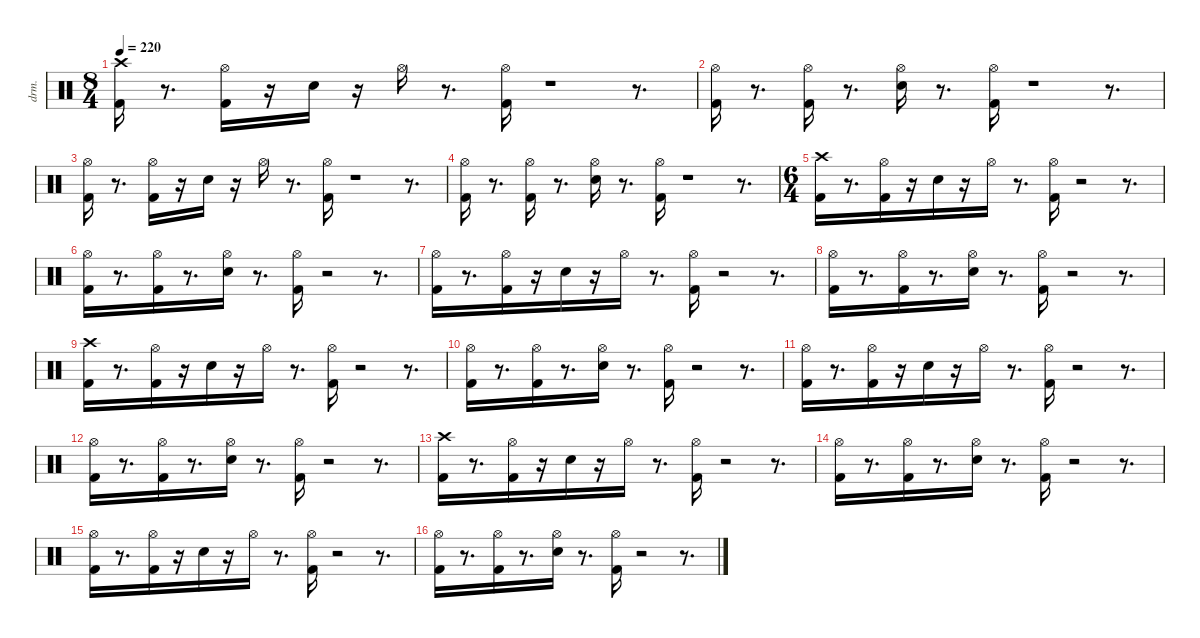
\defaultSystemsLayout 4
\hideDynamics
\bracketExtendMode nobrackets
\otherSystemsTrackNameOrientation horizontal
\track ("EZdrummer 3" "drm.") {instrument percussion}
\staff {score}
\articulation defaults
\ts (8 4)
\tempo 220
\clef neutral
\ks c
("Kick (hit) 2" "Crash high (hit)"{acc #}).16{dy fff beam Down} r.8{d beam Down} ("Kick (hit) 2" "Hi-Hat (open)"{acc #}).16{dy ff beam Down} r.16{beam Down} "Snare (hit) 2".16{beam Down} r.16{beam Down} "Hi-Hat (open)"{acc #}.16{beam Down} r.8{d beam Down} ("Kick (hit) 2" "Hi-Hat (open)"{acc #}).16{beam Down} r.1{beam Down} r.8{d beam Down} |
("Kick (hit) 2" "Hi-Hat (open)"{acc #}).16{beam Down} r.8{d beam Down} ("Kick (hit) 2" "Hi-Hat (open)"{acc #}).16{beam Down} r.8{d beam Down} ("Snare (hit) 2" "Hi-Hat (open)"{acc #}).16{beam Down} r.8{d beam Down} ("Kick (hit) 2" "Hi-Hat (open)"{acc #}).16{dy mf beam Down} r.1{beam Down} r.8{d beam Down} |
("Kick (hit) 2" "Hi-Hat (open)"{acc #}).16{dy fff beam Down} r.8{d beam Down} ("Kick (hit) 2" "Hi-Hat (open)"{acc #}).16{dy ff beam Down} r.16{beam Down} "Snare (hit) 2".16{beam Down} r.16{beam Down} "Hi-Hat (open)"{acc #}.16{beam Down} r.8{d beam Down} ("Kick (hit) 2" "Hi-Hat (open)"{acc #}).16{beam Down} r.1{beam Down} r.8{d beam Down} |
("Kick (hit) 2" "Hi-Hat (open)"{acc #}).16{beam Down} r.8{d beam Down} ("Kick (hit) 2" "Hi-Hat (open)"{acc #}).16{beam Down} r.8{d beam Down} ("Snare (hit) 2" "Hi-Hat (open)"{acc #}).16{beam Down} r.8{d beam Down} ("Kick (hit) 2" "Hi-Hat (open)"{acc #}).16{dy mf beam Down} r.1{beam Down} r.8{d beam Down} |
\ts (6 4)
\beaming (8 6 6)
("Kick (hit) 2" "Crash high (hit)"{acc #}).16{dy fff beam Down} r.8{d beam Down} ("Kick (hit) 2" "Hi-Hat (open)"{acc #}).16{dy ff beam Down} r.16{beam Down} "Snare (hit) 2".16{beam Down} r.16{beam Down} "Hi-Hat (open)"{acc #}.16{beam Down} r.8{d beam Down} ("Kick (hit) 2" "Hi-Hat (open)"{acc #}).16{beam Down} r.2{beam Down} r.8{d beam Down} |
("Kick (hit) 2" "Hi-Hat (open)"{acc #}).16{beam Down} r.8{d beam Down} ("Kick (hit) 2" "Hi-Hat (open)"{acc #}).16{beam Down} r.8{d beam Down} ("Snare (hit) 2" "Hi-Hat (open)"{acc #}).16{beam Down} r.8{d beam Down} ("Kick (hit) 2" "Hi-Hat (open)"{acc #}).16{dy mf beam Down} r.2{beam Down} r.8{d beam Down} |
("Kick (hit) 2" "Hi-Hat (open)"{acc #}).16{dy fff beam Down} r.8{d beam Down} ("Kick (hit) 2" "Hi-Hat (open)"{acc #}).16{dy ff beam Down} r.16{beam Down} "Snare (hit) 2".16{beam Down} r.16{beam Down} "Hi-Hat (open)"{acc #}.16{beam Down} r.8{d beam Down} ("Kick (hit) 2" "Hi-Hat (open)"{acc #}).16{beam Down} r.2{beam Down} r.8{d beam Down} |
("Kick (hit) 2" "Hi-Hat (open)"{acc #}).16{beam Down} r.8{d beam Down} ("Kick (hit) 2" "Hi-Hat (open)"{acc #}).16{beam Down} r.8{d beam Down} ("Snare (hit) 2" "Hi-Hat (open)"{acc #}).16{beam Down} r.8{d beam Down} ("Kick (hit) 2" "Hi-Hat (open)"{acc #}).16{dy mf beam Down} r.2{beam Down} r.8{d beam Down} |
("Kick (hit) 2" "Crash high (hit)"{acc #}).16{dy fff beam Down} r.8{d beam Down} ("Kick (hit) 2" "Hi-Hat (open)"{acc #}).16{dy ff beam Down} r.16{beam Down} "Snare (hit) 2".16{beam Down} r.16{beam Down} "Hi-Hat (open)"{acc #}.16{beam Down} r.8{d beam Down} ("Kick (hit) 2" "Hi-Hat (open)"{acc #}).16{beam Down} r.2{beam Down} r.8{d beam Down} |
("Kick (hit) 2" "Hi-Hat (open)"{acc #}).16{beam Down} r.8{d beam Down} ("Kick (hit) 2" "Hi-Hat (open)"{acc #}).16{beam Down} r.8{d beam Down} ("Snare (hit) 2" "Hi-Hat (open)"{acc #}).16{beam Down} r.8{d beam Down} ("Kick (hit) 2" "Hi-Hat (open)"{acc #}).16{dy mf beam Down} r.2{beam Down} r.8{d beam Down} |
("Kick (hit) 2" "Hi-Hat (open)"{acc #}).16{dy fff beam Down} r.8{d beam Down} ("Kick (hit) 2" "Hi-Hat (open)"{acc #}).16{dy ff beam Down} r.16{beam Down} "Snare (hit) 2".16{beam Down} r.16{beam Down} "Hi-Hat (open)"{acc #}.16{beam Down} r.8{d beam Down} ("Kick (hit) 2" "Hi-Hat (open)"{acc #}).16{beam Down} r.2{beam Down} r.8{d beam Down} |
("Kick (hit) 2" "Hi-Hat (open)"{acc #}).16{beam Down} r.8{d beam Down} ("Kick (hit) 2" "Hi-Hat (open)"{acc #}).16{beam Down} r.8{d beam Down} ("Snare (hit) 2" "Hi-Hat (open)"{acc #}).16{beam Down} r.8{d beam Down} ("Kick (hit) 2" "Hi-Hat (open)"{acc #}).16{dy mf beam Down} r.2{beam Down} r.8{d beam Down} |
("Kick (hit) 2" "Crash high (hit)"{acc #}).16{dy fff beam Down} r.8{d beam Down} ("Kick (hit) 2" "Hi-Hat (open)"{acc #}).16{dy ff beam Down} r.16{beam Down} "Snare (hit) 2".16{beam Down} r.16{beam Down} "Hi-Hat (open)"{acc #}.16{beam Down} r.8{d beam Down} ("Kick (hit) 2" "Hi-Hat (open)"{acc #}).16{beam Down} r.2{beam Down} r.8{d beam Down} |
("Kick (hit) 2" "Hi-Hat (open)"{acc #}).16{beam Down} r.8{d beam Down} ("Kick (hit) 2" "Hi-Hat (open)"{acc #}).16{beam Down} r.8{d beam Down} ("Snare (hit) 2" "Hi-Hat (open)"{acc #}).16{beam Down} r.8{d beam Down} ("Kick (hit) 2" "Hi-Hat (open)"{acc #}).16{dy mf beam Down} r.2{beam Down} r.8{d beam Down} |
("Kick (hit) 2" "Hi-Hat (open)"{acc #}).16{dy fff beam Down} r.8{d beam Down} ("Kick (hit) 2" "Hi-Hat (open)"{acc #}).16{dy ff beam Down} r.16{beam Down} "Snare (hit) 2".16{beam Down} r.16{beam Down} "Hi-Hat (open)"{acc #}.16{beam Down} r.8{d beam Down} ("Kick (hit) 2" "Hi-Hat (open)"{acc #}).16{beam Down} r.2{beam Down} r.8{d beam Down} |
("Kick (hit) 2" "Hi-Hat (open)"{acc #}).16{beam Down} r.8{d beam Down} ("Kick (hit) 2" "Hi-Hat (open)"{acc #}).16{beam Down} r.8{d beam Down} ("Snare (hit) 2" "Hi-Hat (open)"{acc #}).16{beam Down} r.8{d beam Down} ("Kick (hit) 2" "Hi-Hat (open)"{acc #}).16{dy mf beam Down} r.2{beam Down} r.8{d beam Down}
